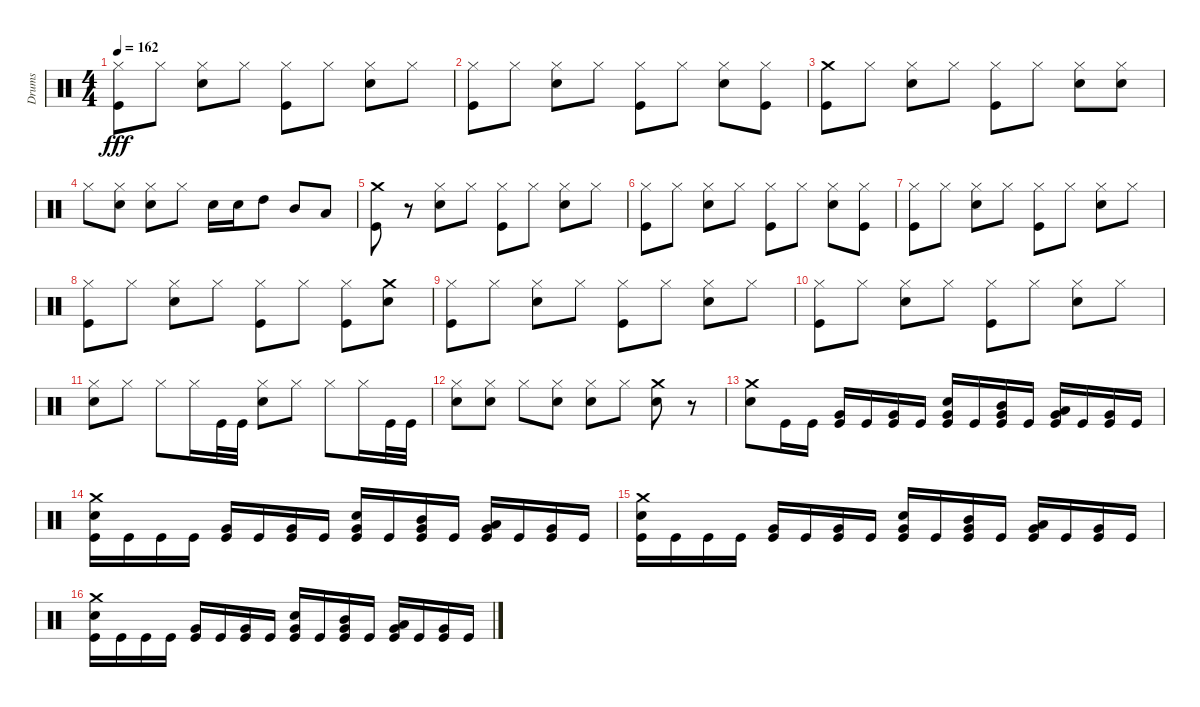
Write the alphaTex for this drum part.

\track ("Drums" "Drums") {instrument percussion}
\staff {score}
\articulation defaults
\ts (4 4)
\tempo 162
\clef neutral
\ks c
("Hi-Hat (closed)" "Kick (hit)").8{dy fff} "Hi-Hat (closed)".8 ("Snare (hit) 2" "Hi-Hat (closed)").8 "Hi-Hat (closed)".8 ("Hi-Hat (closed)" "Kick (hit)").8 "Hi-Hat (closed)".8 ("Snare (hit) 2" "Hi-Hat (closed)").8 "Hi-Hat (closed)".8 |
("Hi-Hat (closed)" "Kick (hit)").8 "Hi-Hat (closed)".8 ("Snare (hit) 2" "Hi-Hat (closed)").8 "Hi-Hat (closed)".8 ("Hi-Hat (closed)" "Kick (hit)").8 "Hi-Hat (closed)".8 ("Snare (hit) 2" "Hi-Hat (closed)").8 ("Kick (hit)" "Hi-Hat (closed)").8 |
("Crash medium (hit)" "Kick (hit)").8 "Hi-Hat (closed)".8 ("Snare (hit) 2" "Hi-Hat (closed)").8 "Hi-Hat (closed)".8 ("Hi-Hat (closed)" "Kick (hit)").8 "Hi-Hat (closed)".8 ("Snare (hit) 2" "Hi-Hat (closed)").8 ("Snare (hit) 2" "Hi-Hat (closed)").8 |
"Hi-Hat (closed)".8 ("Snare (hit) 2" "Hi-Hat (closed)").8 ("Hi-Hat (closed)" "Snare (hit) 2").8 "Hi-Hat (closed)".8 "Snare (hit) 2".16 "Snare (hit) 2".16 "High Tom (hit)".8 "Mid Tom (hit)".8 "Low Tom (hit)".8 |
("Crash medium (hit)" "Kick (hit)").8 r.8 ("Hi-Hat (closed)" "Snare (hit) 2").8 "Hi-Hat (closed)".8 ("Kick (hit)" "Hi-Hat (closed)").8 "Hi-Hat (closed)".8 ("Snare (hit) 2" "Hi-Hat (closed)").8 "Hi-Hat (closed)".8 |
("Hi-Hat (closed)" "Kick (hit)").8 "Hi-Hat (closed)".8 ("Snare (hit) 2" "Hi-Hat (closed)").8 "Hi-Hat (closed)".8 ("Kick (hit)" "Hi-Hat (closed)").8 "Hi-Hat (closed)".8 ("Snare (hit) 2" "Hi-Hat (closed)").8 ("Kick (hit)" "Hi-Hat (closed)").8 |
("Hi-Hat (closed)" "Kick (hit)").8 "Hi-Hat (closed)".8 ("Snare (hit) 2" "Hi-Hat (closed)").8 "Hi-Hat (closed)".8 ("Kick (hit)" "Hi-Hat (closed)").8 "Hi-Hat (closed)".8 ("Snare (hit) 2" "Hi-Hat (closed)").8 "Hi-Hat (closed)".8 |
("Hi-Hat (closed)" "Kick (hit)").8 "Hi-Hat (closed)".8 ("Snare (hit) 2" "Hi-Hat (closed)").8 "Hi-Hat (closed)".8 ("Hi-Hat (closed)" "Kick (hit)").8 "Hi-Hat (closed)".8 ("Kick (hit)" "Hi-Hat (closed)").8 ("Crash medium (hit)" "Snare (hit) 2").8 |
("Hi-Hat (closed)" "Kick (hit)").8 "Hi-Hat (closed)".8 ("Snare (hit) 2" "Hi-Hat (closed)").8 "Hi-Hat (closed)".8 ("Kick (hit)" "Hi-Hat (closed)").8 "Hi-Hat (closed)".8 ("Snare (hit) 2" "Hi-Hat (closed)").8 "Hi-Hat (closed)".8 |
("Hi-Hat (closed)" "Kick (hit)").8 "Hi-Hat (closed)".8 ("Snare (hit) 2" "Hi-Hat (closed)").8 "Hi-Hat (closed)".8 ("Kick (hit)" "Hi-Hat (closed)").8 "Hi-Hat (closed)".8 ("Snare (hit) 2" "Hi-Hat (closed)").8 "Hi-Hat (closed)".8 |
("Hi-Hat (closed)" "Snare (hit) 2").8 "Hi-Hat (closed)".8 "Hi-Hat (closed)".8 "Hi-Hat (closed)".16 "Kick (hit)".32 "Kick (hit)".32 ("Snare (hit) 2" "Hi-Hat (closed)").8 "Hi-Hat (closed)".8 "Hi-Hat (closed)".8 "Hi-Hat (closed)".16 "Kick (hit)".32 "Kick (hit)".32 |
("Hi-Hat (closed)" "Snare (hit) 2").8 ("Hi-Hat (closed)" "Snare (hit) 2").8 "Hi-Hat (closed)".8 ("Hi-Hat (closed)" "Snare (hit) 2").8 ("Snare (hit) 2" "Hi-Hat (closed)").8 "Hi-Hat (closed)".8 ("Crash medium (hit)" "Snare (hit) 2").8 r.8 |
("Crash medium (hit)" "Snare (hit) 2").8 "Kick (hit)".16 "Kick (hit)".16 ("Kick (hit)" "Very Low Tom (hit)").16 "Kick (hit)".16 ("Kick (hit)" "Very Low Tom (hit)").16 "Kick (hit)".16 ("Kick (hit)" "Snare (hit) 2" "Very Low Tom (hit)").16 "Kick (hit)".16 ("Kick (hit)" "Mid Tom (hit)" "Very Low Tom (hit)").16 "Kick (hit)".16 ("Kick (hit)" "Low Tom (hit)" "Very Low Tom (hit)").16 "Kick (hit)".16 ("Kick (hit)" "Very Low Tom (hit)").16 "Kick (hit)".16 |
("Kick (hit)" "Crash medium (hit)" "Snare (hit) 2").16 "Kick (hit)".16 "Kick (hit)".16 "Kick (hit)".16 ("Kick (hit)" "Very Low Tom (hit)").16 "Kick (hit)".16 ("Kick (hit)" "Very Low Tom (hit)").16 "Kick (hit)".16 ("Kick (hit)" "Snare (hit) 2" "Very Low Tom (hit)").16 "Kick (hit)".16 ("Kick (hit)" "Mid Tom (hit)" "Very Low Tom (hit)").16 "Kick (hit)".16 ("Kick (hit)" "Low Tom (hit)" "Very Low Tom (hit)").16 "Kick (hit)".16 ("Kick (hit)" "Very Low Tom (hit)").16 "Kick (hit)".16 |
("Kick (hit)" "Crash medium (hit)" "Snare (hit) 2").16 "Kick (hit)".16 "Kick (hit)".16 "Kick (hit)".16 ("Kick (hit)" "Very Low Tom (hit)").16 "Kick (hit)".16 ("Kick (hit)" "Very Low Tom (hit)").16 "Kick (hit)".16 ("Kick (hit)" "Snare (hit) 2" "Very Low Tom (hit)").16 "Kick (hit)".16 ("Kick (hit)" "Mid Tom (hit)" "Very Low Tom (hit)").16 "Kick (hit)".16 ("Kick (hit)" "Low Tom (hit)" "Very Low Tom (hit)").16 "Kick (hit)".16 ("Kick (hit)" "Very Low Tom (hit)").16 "Kick (hit)".16 |
("Kick (hit)" "Crash medium (hit)" "Snare (hit) 2").16 "Kick (hit)".16 "Kick (hit)".16 "Kick (hit)".16 ("Kick (hit)" "Very Low Tom (hit)").16 "Kick (hit)".16 ("Kick (hit)" "Very Low Tom (hit)").16 "Kick (hit)".16 ("Kick (hit)" "Snare (hit) 2" "Very Low Tom (hit)").16 "Kick (hit)".16 ("Kick (hit)" "Mid Tom (hit)" "Very Low Tom (hit)").16 "Kick (hit)".16 ("Kick (hit)" "Low Tom (hit)" "Very Low Tom (hit)").16 "Kick (hit)".16 ("Kick (hit)" "Very Low Tom (hit)").16 "Kick (hit)".16
